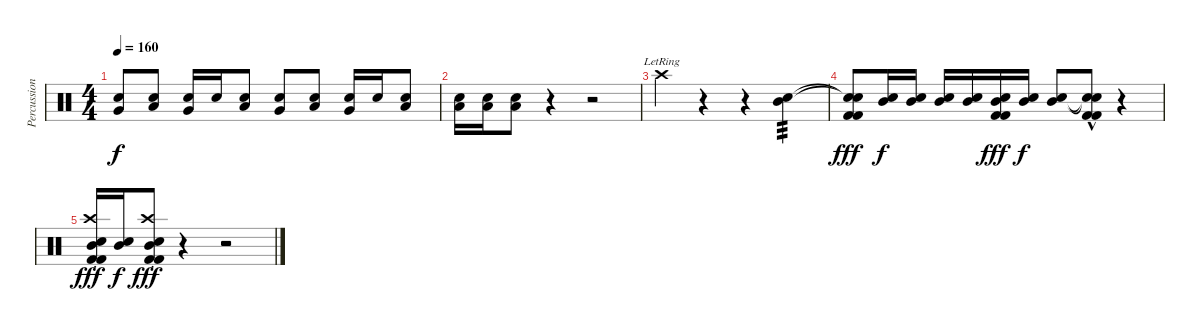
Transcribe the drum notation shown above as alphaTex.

\track ("Percussions" "Percussion") {instrument percussion}
\staff {score}
\articulation defaults
\ts (4 4)
\tempo 160
\clef neutral
\ks c
("Snare (hit) 2" "Very Low Tom (hit)").8{dy f} ("Snare (hit) 2" "Low Tom (hit)").8 ("Snare (hit) 2" "Very Low Tom (hit)").16 "Snare (hit) 2".16 ("Snare (hit) 2" "Low Tom (hit)").8 ("Snare (hit) 2" "Very Low Tom (hit)").8 ("Snare (hit) 2" "Low Tom (hit)").8 ("Snare (hit) 2" "Very Low Tom (hit)").16 "Snare (hit) 2".16 ("Snare (hit) 2" "Low Tom (hit)").8 |
("Snare (hit) 2" "Low Tom (hit)").16 ("Snare (hit) 2" "Low Tom (hit)").16 ("Snare (hit) 2" "Low Tom (hit)").8 r.4 r.2 |
"Crash high (hit)"{lr}.4 r.4 r.4 ("Snare (hit) 2" "Mid Tom (hit)").4{tp 3} |
("Snare (hit)"{t} "Snare (hit)"{t} "Kick (hit) 2" "Kick (hit) 2").8{dy fff} ("Snare (hit) 2" "Mid Tom (hit)").16{dy f} ("Snare (hit) 2" "Mid Tom (hit)").16 ("Snare (hit) 2" "Mid Tom (hit)").16 ("Snare (hit) 2" "Mid Tom (hit)").16 ("Snare (hit) 2" "Mid Tom (hit)" "Kick (hit) 2" "Kick (hit) 2").16{dy fff} ("Snare (hit) 2" "Mid Tom (hit)").16{dy f} ("Snare (hit) 2" "Mid Tom (hit)").8 ("Snare (hit)"{t} "Snare (hit)"{t} "Kick (hit) 2" "Kick (hit) 2"{hac}).8 r.4 |
("Crash high (hit)"{st} "Snare (hit) 2" "Mid Tom (hit)" "Kick (hit) 2" "Kick (hit) 2").16{dy fff} ("Snare (hit) 2" "Mid Tom (hit)").16{dy f} ("Crash high (hit)"{st} "Snare (hit) 2" "Mid Tom (hit)" "Kick (hit) 2" "Kick (hit) 2").8{dy fff} r.4 r.2
